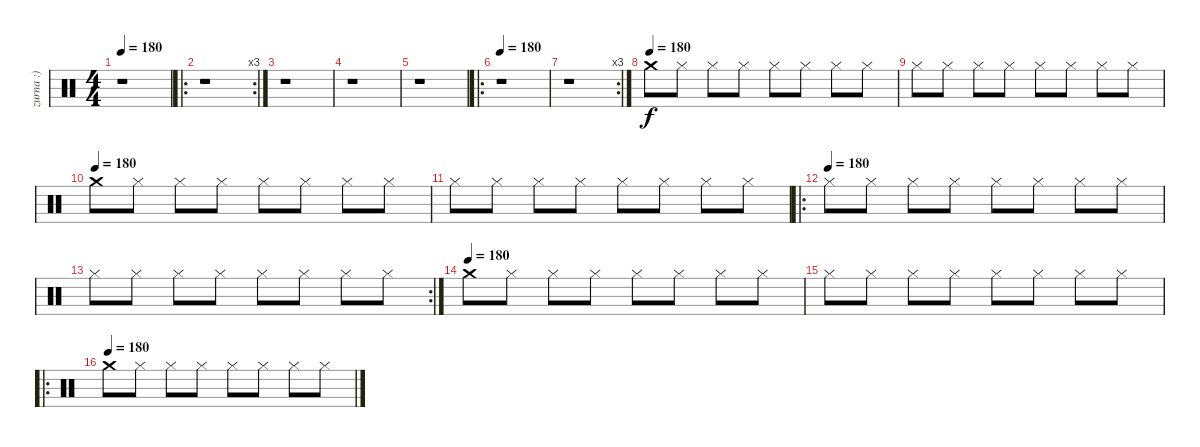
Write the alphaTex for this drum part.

\track ("zurna :)" "zurna :)") {instrument percussion}
\staff {score}
\articulation defaults
\ts (4 4)
\tempo 180
\tempo 120
\tempo 180
\clef neutral
\ks c
r.1{dy f} |
\ro
\rc 3
r.1 |
r.1 |
r.1 |
r.1 |
\ro
\tempo 180
r.1 |
\rc 3
r.1 |
\tempo (180)
"Crash medium (hit)".8 "Hi-Hat (closed)".8 "Hi-Hat (closed)".8 "Hi-Hat (closed)".8 "Hi-Hat (closed)".8 "Hi-Hat (closed)".8 "Hi-Hat (closed)".8 "Hi-Hat (closed)".8 |
"Hi-Hat (closed)".8 "Hi-Hat (closed)".8 "Hi-Hat (closed)".8 "Hi-Hat (closed)".8 "Hi-Hat (closed)".8 "Hi-Hat (closed)".8 "Hi-Hat (closed)".8 "Hi-Hat (closed)".8 |
\tempo (180)
"Crash medium (hit)".8 "Hi-Hat (closed)".8 "Hi-Hat (closed)".8 "Hi-Hat (closed)".8 "Hi-Hat (closed)".8 "Hi-Hat (closed)".8 "Hi-Hat (closed)".8 "Hi-Hat (closed)".8 |
"Hi-Hat (closed)".8 "Hi-Hat (closed)".8 "Hi-Hat (closed)".8 "Hi-Hat (closed)".8 "Hi-Hat (closed)".8 "Hi-Hat (closed)".8 "Hi-Hat (closed)".8 "Hi-Hat (closed)".8 |
\ro
\tempo (180)
"Hi-Hat (closed)".8 "Hi-Hat (closed)".8 "Hi-Hat (closed)".8 "Hi-Hat (closed)".8 "Hi-Hat (closed)".8 "Hi-Hat (closed)".8 "Hi-Hat (closed)".8 "Hi-Hat (closed)".8 |
\rc 2 "Hi-Hat (closed)".8 "Hi-Hat (closed)".8 "Hi-Hat (closed)".8 "Hi-Hat (closed)".8 "Hi-Hat (closed)".8 "Hi-Hat (closed)".8 "Hi-Hat (closed)".8 "Hi-Hat (closed)".8
|
\tempo (180)
"Crash medium (hit)".8 "Hi-Hat (closed)".8 "Hi-Hat (closed)".8 "Hi-Hat (closed)".8 "Hi-Hat (closed)".8 "Hi-Hat (closed)".8 "Hi-Hat (closed)".8 "Hi-Hat (closed)".8 |
"Hi-Hat (closed)".8 "Hi-Hat (closed)".8 "Hi-Hat (closed)".8 "Hi-Hat (closed)".8 "Hi-Hat (closed)".8 "Hi-Hat (closed)".8 "Hi-Hat (closed)".8 "Hi-Hat (closed)".8 |
\ro
\tempo (180)
"Crash medium (hit)".8 "Hi-Hat (closed)".8 "Hi-Hat (closed)".8 "Hi-Hat (closed)".8 "Hi-Hat (closed)".8 "Hi-Hat (closed)".8 "Hi-Hat (closed)".8 "Hi-Hat (closed)".8
